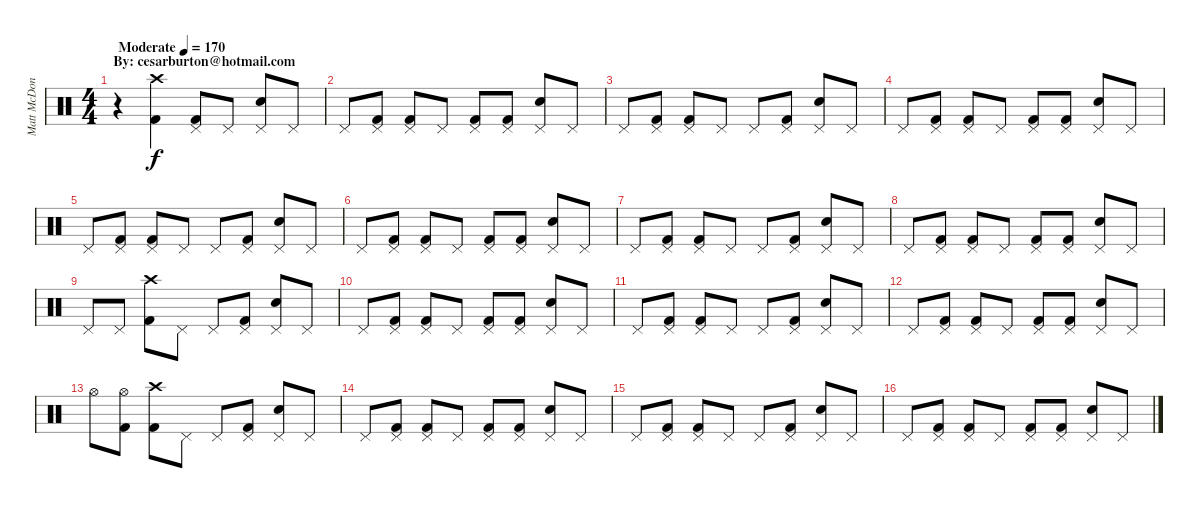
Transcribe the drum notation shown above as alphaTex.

\track ("Matt McDonough" "Matt McDon") {instrument percussion}
\staff {score}
\articulation defaults
\ts (4 4)
\section ("" "By: cesarburton@hotmail.com")
\tempo (170 "Moderate")
\clef neutral
\ks c
r.4{dy f} ("Crash high (hit)" "Kick (hit) 2").4 ("Pedal Hi-Hat (hit)" "Kick (hit) 2").8 "Pedal Hi-Hat (hit)".8 ("Pedal Hi-Hat (hit)" "Electric Snare (hit)").8 "Pedal Hi-Hat (hit)".8 |
"Pedal Hi-Hat (hit)".8 ("Pedal Hi-Hat (hit)" "Kick (hit) 2").8 ("Pedal Hi-Hat (hit)" "Kick (hit) 2").8 "Pedal Hi-Hat (hit)".8 ("Pedal Hi-Hat (hit)" "Kick (hit) 2").8 ("Pedal Hi-Hat (hit)" "Kick (hit) 2").8 ("Pedal Hi-Hat (hit)" "Electric Snare (hit)").8 "Pedal Hi-Hat (hit)".8 |
"Pedal Hi-Hat (hit)".8 ("Pedal Hi-Hat (hit)" "Kick (hit) 2").8 ("Pedal Hi-Hat (hit)" "Kick (hit) 2").8 "Pedal Hi-Hat (hit)".8 "Pedal Hi-Hat (hit)".8 ("Pedal Hi-Hat (hit)" "Kick (hit) 2").8 ("Pedal Hi-Hat (hit)" "Electric Snare (hit)").8 "Pedal Hi-Hat (hit)".8 |
"Pedal Hi-Hat (hit)".8 ("Pedal Hi-Hat (hit)" "Kick (hit) 2").8 ("Pedal Hi-Hat (hit)" "Kick (hit) 2").8 "Pedal Hi-Hat (hit)".8 ("Pedal Hi-Hat (hit)" "Kick (hit) 2").8 ("Pedal Hi-Hat (hit)" "Kick (hit) 2").8 ("Pedal Hi-Hat (hit)" "Electric Snare (hit)").8 "Pedal Hi-Hat (hit)".8 |
"Pedal Hi-Hat (hit)".8 ("Pedal Hi-Hat (hit)" "Kick (hit) 2").8 ("Pedal Hi-Hat (hit)" "Kick (hit) 2").8 "Pedal Hi-Hat (hit)".8 "Pedal Hi-Hat (hit)".8 ("Pedal Hi-Hat (hit)" "Kick (hit) 2").8 ("Pedal Hi-Hat (hit)" "Electric Snare (hit)").8 "Pedal Hi-Hat (hit)".8 |
"Pedal Hi-Hat (hit)".8 ("Pedal Hi-Hat (hit)" "Kick (hit) 2").8 ("Pedal Hi-Hat (hit)" "Kick (hit) 2").8 "Pedal Hi-Hat (hit)".8 ("Pedal Hi-Hat (hit)" "Kick (hit) 2").8 ("Pedal Hi-Hat (hit)" "Kick (hit) 2").8 ("Pedal Hi-Hat (hit)" "Electric Snare (hit)").8 "Pedal Hi-Hat (hit)".8 |
"Pedal Hi-Hat (hit)".8 ("Pedal Hi-Hat (hit)" "Kick (hit) 2").8 ("Pedal Hi-Hat (hit)" "Kick (hit) 2").8 "Pedal Hi-Hat (hit)".8 "Pedal Hi-Hat (hit)".8 ("Pedal Hi-Hat (hit)" "Kick (hit) 2").8 ("Pedal Hi-Hat (hit)" "Electric Snare (hit)").8 "Pedal Hi-Hat (hit)".8 |
"Pedal Hi-Hat (hit)".8 ("Pedal Hi-Hat (hit)" "Kick (hit) 2").8 ("Pedal Hi-Hat (hit)" "Kick (hit) 2").8 "Pedal Hi-Hat (hit)".8 ("Pedal Hi-Hat (hit)" "Kick (hit) 2").8 ("Pedal Hi-Hat (hit)" "Kick (hit) 2").8 ("Pedal Hi-Hat (hit)" "Electric Snare (hit)").8 "Pedal Hi-Hat (hit)".8 |
"Pedal Hi-Hat (hit)".8 "Pedal Hi-Hat (hit)".8 ("Crash high (hit)" "Kick (hit) 2").8 "Pedal Hi-Hat (hit)".8 "Pedal Hi-Hat (hit)".8 ("Pedal Hi-Hat (hit)" "Kick (hit) 2").8 ("Pedal Hi-Hat (hit)" "Electric Snare (hit)").8 "Pedal Hi-Hat (hit)".8 |
"Pedal Hi-Hat (hit)".8 ("Pedal Hi-Hat (hit)" "Kick (hit) 2").8 ("Pedal Hi-Hat (hit)" "Kick (hit) 2").8 "Pedal Hi-Hat (hit)".8 ("Pedal Hi-Hat (hit)" "Kick (hit) 2").8 ("Pedal Hi-Hat (hit)" "Kick (hit) 2").8 ("Pedal Hi-Hat (hit)" "Electric Snare (hit)").8 "Pedal Hi-Hat (hit)".8 |
"Pedal Hi-Hat (hit)".8 ("Pedal Hi-Hat (hit)" "Kick (hit) 2").8 ("Pedal Hi-Hat (hit)" "Kick (hit) 2").8 "Pedal Hi-Hat (hit)".8 "Pedal Hi-Hat (hit)".8 ("Pedal Hi-Hat (hit)" "Kick (hit) 2").8 ("Pedal Hi-Hat (hit)" "Electric Snare (hit)").8 "Pedal Hi-Hat (hit)".8 |
"Pedal Hi-Hat (hit)".8 ("Pedal Hi-Hat (hit)" "Kick (hit) 2").8 ("Pedal Hi-Hat (hit)" "Kick (hit) 2").8 "Pedal Hi-Hat (hit)".8 ("Pedal Hi-Hat (hit)" "Kick (hit) 2").8 ("Pedal Hi-Hat (hit)" "Kick (hit) 2").8 ("Pedal Hi-Hat (hit)" "Electric Snare (hit)").8 "Pedal Hi-Hat (hit)".8 |
"Hi-Hat (open)".8 ("Hi-Hat (open)" "Kick (hit) 2").8 ("Crash high (hit)" "Kick (hit) 2").8 "Pedal Hi-Hat (hit)".8 "Pedal Hi-Hat (hit)".8 ("Pedal Hi-Hat (hit)" "Kick (hit) 2").8 ("Pedal Hi-Hat (hit)" "Electric Snare (hit)").8 "Pedal Hi-Hat (hit)".8 |
"Pedal Hi-Hat (hit)".8 ("Pedal Hi-Hat (hit)" "Kick (hit) 2").8 ("Pedal Hi-Hat (hit)" "Kick (hit) 2").8 "Pedal Hi-Hat (hit)".8 ("Pedal Hi-Hat (hit)" "Kick (hit) 2").8 ("Pedal Hi-Hat (hit)" "Kick (hit) 2").8 ("Pedal Hi-Hat (hit)" "Electric Snare (hit)").8 "Pedal Hi-Hat (hit)".8 |
"Pedal Hi-Hat (hit)".8 ("Pedal Hi-Hat (hit)" "Kick (hit) 2").8 ("Pedal Hi-Hat (hit)" "Kick (hit) 2").8 "Pedal Hi-Hat (hit)".8 "Pedal Hi-Hat (hit)".8 ("Pedal Hi-Hat (hit)" "Kick (hit) 2").8 ("Pedal Hi-Hat (hit)" "Electric Snare (hit)").8 "Pedal Hi-Hat (hit)".8 |
"Pedal Hi-Hat (hit)".8 ("Pedal Hi-Hat (hit)" "Kick (hit) 2").8 ("Pedal Hi-Hat (hit)" "Kick (hit) 2").8 "Pedal Hi-Hat (hit)".8 ("Pedal Hi-Hat (hit)" "Kick (hit) 2").8 ("Pedal Hi-Hat (hit)" "Kick (hit) 2").8 ("Pedal Hi-Hat (hit)" "Electric Snare (hit)").8 "Pedal Hi-Hat (hit)".8
